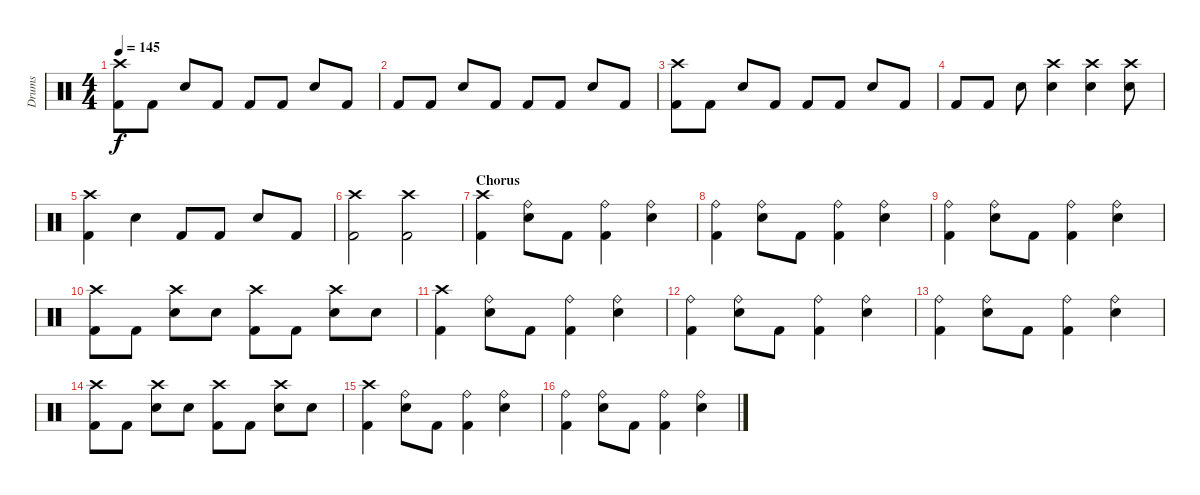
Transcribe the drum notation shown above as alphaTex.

\track ("Drums" "Drums") {instrument percussion}
\staff {score}
\articulation defaults
\ts (4 4)
\tempo 145
\clef neutral
\ks c
("Crash high (hit)" "Kick (hit) 2").8{dy f} "Kick (hit) 2".8 "Snare (hit) 2".8 "Kick (hit) 2".8 "Kick (hit) 2".8 "Kick (hit) 2".8 "Snare (hit) 2".8 "Kick (hit) 2".8 |
"Kick (hit) 2".8 "Kick (hit) 2".8 "Snare (hit) 2".8 "Kick (hit) 2".8 "Kick (hit) 2".8 "Kick (hit) 2".8 "Snare (hit) 2".8 "Kick (hit) 2".8 |
("Crash high (hit)" "Kick (hit) 2").8 "Kick (hit) 2".8 "Snare (hit) 2".8 "Kick (hit) 2".8 "Kick (hit) 2".8 "Kick (hit) 2".8 "Snare (hit) 2".8 "Kick (hit) 2".8 |
"Kick (hit) 2".8 "Kick (hit) 2".8 "Snare (hit) 2".8 ("Crash high (hit)" "Snare (hit) 2").4 ("Crash high (hit)" "Snare (hit) 2").4 ("Crash high (hit)" "Snare (hit) 2").8 |
("Crash high (hit)" "Kick (hit) 2").4 "Snare (hit) 2".4 "Kick (hit) 2".8 "Kick (hit) 2".8 "Snare (hit) 2".8 "Kick (hit) 2".8 |
("Crash high (hit)" "Kick (hit) 2").2 ("Crash high (hit)" "Kick (hit) 2").2 |
\section ("" "Chorus")
("Crash high (hit)" "Kick (hit) 2").4 ("Ride (bell)" "Snare (hit) 2").8 "Kick (hit) 2".8 ("Ride (bell)" "Kick (hit) 2").4 ("Ride (bell)" "Snare (hit) 2").4 |
("Ride (bell)" "Kick (hit) 2").4 ("Ride (bell)" "Snare (hit) 2").8 "Kick (hit) 2".8 ("Ride (bell)" "Kick (hit) 2").4 ("Ride (bell)" "Snare (hit) 2").4 |
("Ride (bell)" "Kick (hit) 2").4 ("Ride (bell)" "Snare (hit) 2").8 "Kick (hit) 2".8 ("Ride (bell)" "Kick (hit) 2").4 ("Ride (bell)" "Snare (hit) 2").4 |
("Crash high (hit)" "Kick (hit) 2").8 "Kick (hit) 2".8 ("Crash high (hit)" "Snare (hit) 2").8 "Snare (hit) 2".8 ("Crash high (hit)" "Kick (hit) 2").8 "Kick (hit) 2".8 ("Crash high (hit)" "Snare (hit) 2").8 "Snare (hit) 2".8 |
("Crash high (hit)" "Kick (hit) 2").4 ("Ride (bell)" "Snare (hit) 2").8 "Kick (hit) 2".8 ("Ride (bell)" "Kick (hit) 2").4 ("Ride (bell)" "Snare (hit) 2").4 |
("Ride (bell)" "Kick (hit) 2").4 ("Ride (bell)" "Snare (hit) 2").8 "Kick (hit) 2".8 ("Ride (bell)" "Kick (hit) 2").4 ("Ride (bell)" "Snare (hit) 2").4 |
("Ride (bell)" "Kick (hit) 2").4 ("Ride (bell)" "Snare (hit) 2").8 "Kick (hit) 2".8 ("Ride (bell)" "Kick (hit) 2").4 ("Ride (bell)" "Snare (hit) 2").4 |
("Crash high (hit)" "Kick (hit) 2").8 "Kick (hit) 2".8 ("Crash high (hit)" "Snare (hit) 2").8 "Snare (hit) 2".8 ("Crash high (hit)" "Kick (hit) 2").8 "Kick (hit) 2".8 ("Crash high (hit)" "Snare (hit) 2").8 "Snare (hit) 2".8 |
("Crash high (hit)" "Kick (hit) 2").4 ("Ride (bell)" "Snare (hit) 2").8 "Kick (hit) 2".8 ("Ride (bell)" "Kick (hit) 2").4 ("Ride (bell)" "Snare (hit) 2").4 |
("Ride (bell)" "Kick (hit) 2").4 ("Ride (bell)" "Snare (hit) 2").8 "Kick (hit) 2".8 ("Ride (bell)" "Kick (hit) 2").4 ("Ride (bell)" "Snare (hit) 2").4
